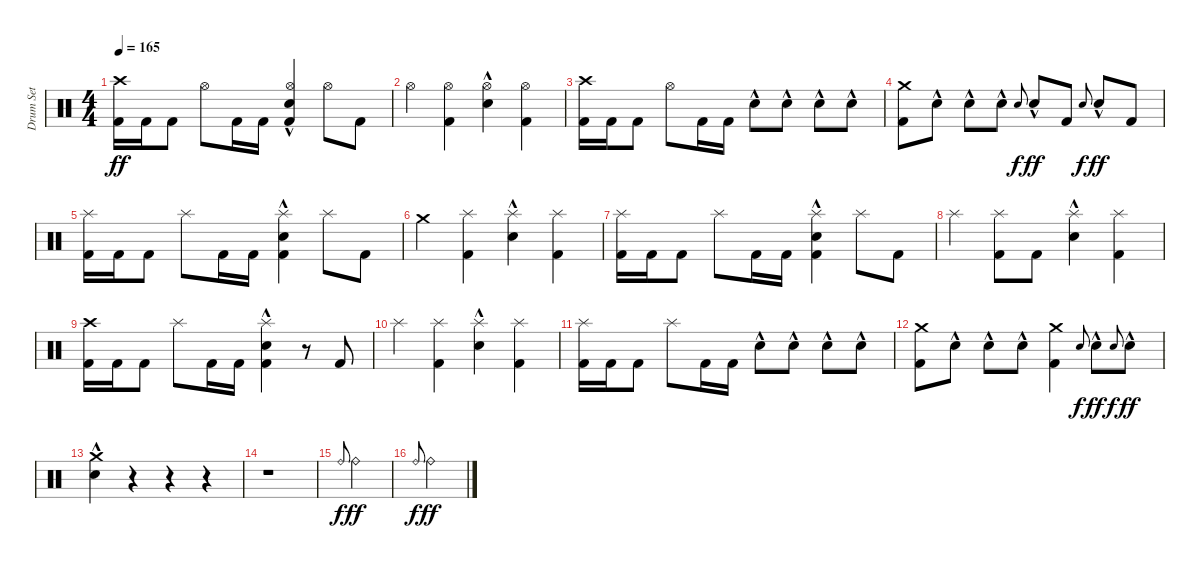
\track ("Drum Set" "Drum Set") {instrument percussion}
\staff {score}
\articulation defaults
\ts (4 4)
\tempo 165
\clef neutral
\ks c
("Crash high (hit)" "Kick (hit) 2").16{dy ff} "Kick (hit) 2".16 "Kick (hit) 2".8 "Hi-Hat (open)".8 "Kick (hit) 2".16 "Kick (hit) 2".16 ("Hi-Hat (open)" "Snare (hit) 2"{hac} "Kick (hit) 2").4 "Hi-Hat (open)".8 "Kick (hit) 2".8 |
"Hi-Hat (open)".4 ("Hi-Hat (open)" "Kick (hit) 2").4 ("Hi-Hat (open)" "Snare (hit) 2"{hac}).4 ("Hi-Hat (open)" "Kick (hit) 2").4 |
("Crash high (hit)" "Kick (hit) 2").16 "Kick (hit) 2".16 "Kick (hit) 2".8 "Hi-Hat (open)".8 "Kick (hit) 2".16 "Kick (hit) 2".16 "Snare (hit) 2"{hac}.8 "Snare (hit) 2"{hac}.8 "Snare (hit) 2"{hac}.8 "Snare (hit) 2"{hac}.8 |
("Crash medium (hit)" "Kick (hit) 2").8 "Snare (hit) 2"{hac}.8 "Snare (hit) 2"{hac}.8 "Snare (hit) 2"{hac}.8 "Snare (hit) 2".8{gr onbeat dy f} "Snare (hit) 2"{hac}.8{dy ff} "Kick (hit) 2".8 "Snare (hit) 2".8{gr onbeat dy f} "Snare (hit) 2"{hac}.8{dy ff} "Kick (hit) 2".8 |
("Splash (hit)" "Kick (hit) 2").16 "Kick (hit) 2".16 "Kick (hit) 2".8 "Splash (hit)".8 "Kick (hit) 2".16 "Kick (hit) 2".16 ("Splash (hit)" "Snare (hit) 2"{hac} "Kick (hit) 2").4 "Splash (hit)".8 "Kick (hit) 2".8 |
"Crash medium (hit)".4 ("Splash (hit)" "Kick (hit) 2").4 ("Splash (hit)" "Snare (hit) 2"{hac}).4 ("Splash (hit)" "Kick (hit) 2").4 |
("Splash (hit)" "Kick (hit) 2").16 "Kick (hit) 2".16 "Kick (hit) 2".8 "Splash (hit)".8 "Kick (hit) 2".16 "Kick (hit) 2".16 ("Splash (hit)" "Snare (hit) 2"{hac} "Kick (hit) 2").4 "Splash (hit)".8 "Kick (hit) 2".8 |
"Splash (hit)".4 ("Splash (hit)" "Kick (hit) 2").8 "Kick (hit) 2".8 ("Splash (hit)" "Snare (hit) 2"{hac}).4 ("Splash (hit)" "Kick (hit) 2").4 |
("Crash high (hit)" "Kick (hit) 2").16 "Kick (hit) 2".16 "Kick (hit) 2".8 "Splash (hit)".8 "Kick (hit) 2".16 "Kick (hit) 2".16 ("Splash (hit)" "Snare (hit) 2"{hac} "Kick (hit) 2").4 r.8 "Kick (hit) 2".8 |
"Splash (hit)".4 ("Splash (hit)" "Kick (hit) 2").4 ("Splash (hit)" "Snare (hit) 2"{hac}).4 ("Splash (hit)" "Kick (hit) 2").4 |
("Splash (hit)" "Kick (hit) 2").16 "Kick (hit) 2".16 "Kick (hit) 2".8 "Splash (hit)".8 "Kick (hit) 2".16 "Kick (hit) 2".16 "Snare (hit) 2"{hac}.8 "Snare (hit) 2"{hac}.8 "Snare (hit) 2"{hac}.8 "Snare (hit) 2"{hac}.8 |
("Crash medium (hit)" "Kick (hit) 2").8 "Snare (hit) 2"{hac}.8 "Snare (hit) 2"{hac}.8 "Snare (hit) 2"{hac}.8 ("Crash medium (hit)" "Kick (hit) 2").4 "Snare (hit) 2".8{gr onbeat dy f} "Snare (hit) 2"{hac}.8{dy ff} "Snare (hit) 2".8{gr onbeat dy f} "Snare (hit) 2"{hac}.8{dy ff} |
("Crash medium (hit)" "Snare (hit) 2"{hac}).4 r.4 r.4 r.4 |
r.1 |
"Ride (bell)".8{gr onbeat dy f} "Ride (bell)".4{dy ff} |
"Ride (bell)".8{gr onbeat dy f} "Ride (bell)".4{dy ff}
